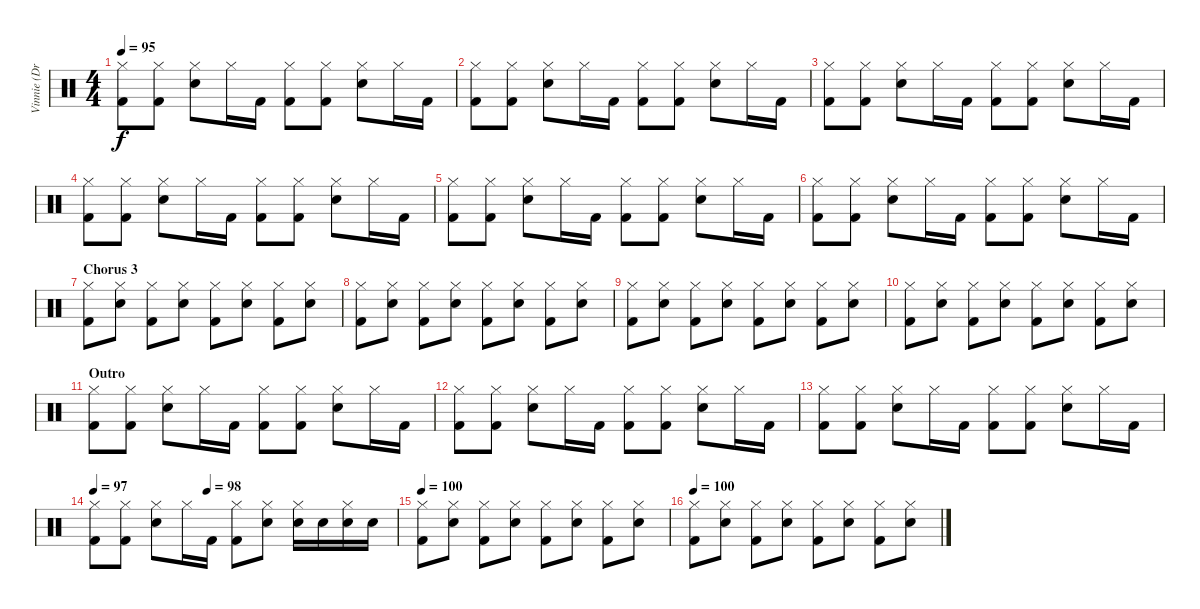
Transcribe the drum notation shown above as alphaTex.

\track ("Vinnie (Drums)" "Vinnie (Dr") {instrument percussion}
\staff {score}
\articulation defaults
\ts (4 4)
\tempo 95
\clef neutral
\ks c
("Kick (hit) 2" "Hi-Hat (closed)").8{dy f} ("Kick (hit) 2" "Hi-Hat (closed)").8 ("Snare (hit) 2" "Hi-Hat (closed)").8 "Hi-Hat (closed)".16 "Kick (hit) 2".16 ("Kick (hit) 2" "Hi-Hat (closed)").8 ("Kick (hit) 2" "Hi-Hat (closed)").8 ("Snare (hit) 2" "Hi-Hat (closed)").8 "Hi-Hat (closed)".16 "Kick (hit) 2".16 |
("Kick (hit) 2" "Hi-Hat (closed)").8 ("Kick (hit) 2" "Hi-Hat (closed)").8 ("Snare (hit) 2" "Hi-Hat (closed)").8 "Hi-Hat (closed)".16 "Kick (hit) 2".16 ("Kick (hit) 2" "Hi-Hat (closed)").8 ("Kick (hit) 2" "Hi-Hat (closed)").8 ("Snare (hit) 2" "Hi-Hat (closed)").8 "Hi-Hat (closed)".16 "Kick (hit) 2".16 |
("Kick (hit) 2" "Hi-Hat (closed)").8 ("Kick (hit) 2" "Hi-Hat (closed)").8 ("Snare (hit) 2" "Hi-Hat (closed)").8 "Hi-Hat (closed)".16 "Kick (hit) 2".16 ("Kick (hit) 2" "Hi-Hat (closed)").8 ("Kick (hit) 2" "Hi-Hat (closed)").8 ("Snare (hit) 2" "Hi-Hat (closed)").8 "Hi-Hat (closed)".16 "Kick (hit) 2".16 |
("Kick (hit) 2" "Hi-Hat (closed)").8 ("Kick (hit) 2" "Hi-Hat (closed)").8 ("Snare (hit) 2" "Hi-Hat (closed)").8 "Hi-Hat (closed)".16 "Kick (hit) 2".16 ("Kick (hit) 2" "Hi-Hat (closed)").8 ("Kick (hit) 2" "Hi-Hat (closed)").8 ("Snare (hit) 2" "Hi-Hat (closed)").8 "Hi-Hat (closed)".16 "Kick (hit) 2".16 |
("Kick (hit) 2" "Hi-Hat (closed)").8 ("Kick (hit) 2" "Hi-Hat (closed)").8 ("Snare (hit) 2" "Hi-Hat (closed)").8 "Hi-Hat (closed)".16 "Kick (hit) 2".16 ("Kick (hit) 2" "Hi-Hat (closed)").8 ("Kick (hit) 2" "Hi-Hat (closed)").8 ("Snare (hit) 2" "Hi-Hat (closed)").8 "Hi-Hat (closed)".16 "Kick (hit) 2".16 |
("Kick (hit) 2" "Hi-Hat (closed)").8 ("Kick (hit) 2" "Hi-Hat (closed)").8 ("Snare (hit) 2" "Hi-Hat (closed)").8 "Hi-Hat (closed)".16 "Kick (hit) 2".16 ("Kick (hit) 2" "Hi-Hat (closed)").8 ("Kick (hit) 2" "Hi-Hat (closed)").8 ("Snare (hit) 2" "Hi-Hat (closed)").8 "Hi-Hat (closed)".16 "Kick (hit) 2".16 |
\section ("" "Chorus 3")
("Kick (hit) 2" "Hi-Hat (closed)").8 ("Snare (hit) 2" "Hi-Hat (closed)").8 ("Kick (hit) 2" "Hi-Hat (closed)").8 ("Snare (hit) 2" "Hi-Hat (closed)").8 ("Kick (hit) 2" "Hi-Hat (closed)").8 ("Snare (hit) 2" "Hi-Hat (closed)").8 ("Kick (hit) 2" "Hi-Hat (closed)").8 ("Snare (hit) 2" "Hi-Hat (closed)").8 |
("Kick (hit) 2" "Hi-Hat (closed)").8 ("Snare (hit) 2" "Hi-Hat (closed)").8 ("Kick (hit) 2" "Hi-Hat (closed)").8 ("Snare (hit) 2" "Hi-Hat (closed)").8 ("Kick (hit) 2" "Hi-Hat (closed)").8 ("Snare (hit) 2" "Hi-Hat (closed)").8 ("Kick (hit) 2" "Hi-Hat (closed)").8 ("Snare (hit) 2" "Hi-Hat (closed)").8 |
("Kick (hit) 2" "Hi-Hat (closed)").8 ("Snare (hit) 2" "Hi-Hat (closed)").8 ("Kick (hit) 2" "Hi-Hat (closed)").8 ("Snare (hit) 2" "Hi-Hat (closed)").8 ("Kick (hit) 2" "Hi-Hat (closed)").8 ("Snare (hit) 2" "Hi-Hat (closed)").8 ("Kick (hit) 2" "Hi-Hat (closed)").8 ("Snare (hit) 2" "Hi-Hat (closed)").8 |
("Kick (hit) 2" "Hi-Hat (closed)").8 ("Snare (hit) 2" "Hi-Hat (closed)").8 ("Kick (hit) 2" "Hi-Hat (closed)").8 ("Snare (hit) 2" "Hi-Hat (closed)").8 ("Kick (hit) 2" "Hi-Hat (closed)").8 ("Snare (hit) 2" "Hi-Hat (closed)").8 ("Kick (hit) 2" "Hi-Hat (closed)").8 ("Snare (hit) 2" "Hi-Hat (closed)").8 |
\section ("" "Outro")
("Kick (hit) 2" "Hi-Hat (closed)").8 ("Kick (hit) 2" "Hi-Hat (closed)").8 ("Snare (hit) 2" "Hi-Hat (closed)").8 "Hi-Hat (closed)".16 "Kick (hit) 2".16 ("Kick (hit) 2" "Hi-Hat (closed)").8 ("Kick (hit) 2" "Hi-Hat (closed)").8 ("Snare (hit) 2" "Hi-Hat (closed)").8 "Hi-Hat (closed)".16 "Kick (hit) 2".16 |
("Kick (hit) 2" "Hi-Hat (closed)").8 ("Kick (hit) 2" "Hi-Hat (closed)").8 ("Snare (hit) 2" "Hi-Hat (closed)").8 "Hi-Hat (closed)".16 "Kick (hit) 2".16 ("Kick (hit) 2" "Hi-Hat (closed)").8 ("Kick (hit) 2" "Hi-Hat (closed)").8 ("Snare (hit) 2" "Hi-Hat (closed)").8 "Hi-Hat (closed)".16 "Kick (hit) 2".16 |
("Kick (hit) 2" "Hi-Hat (closed)").8 ("Kick (hit) 2" "Hi-Hat (closed)").8 ("Snare (hit) 2" "Hi-Hat (closed)").8 "Hi-Hat (closed)".16 "Kick (hit) 2".16 ("Kick (hit) 2" "Hi-Hat (closed)").8 ("Kick (hit) 2" "Hi-Hat (closed)").8 ("Snare (hit) 2" "Hi-Hat (closed)").8 "Hi-Hat (closed)".16 "Kick (hit) 2".16 |
\tempo 97
\tempo (98 0.375)
("Kick (hit) 2" "Hi-Hat (closed)").8 ("Kick (hit) 2" "Hi-Hat (closed)").8 ("Snare (hit) 2" "Hi-Hat (closed)").8 "Hi-Hat (closed)".16 "Kick (hit) 2".16 ("Kick (hit) 2" "Hi-Hat (closed)").8 ("Snare (hit) 2" "Hi-Hat (closed)").8 ("Snare (hit) 2" "Hi-Hat (closed)").16 "Snare (hit) 2".16 ("Snare (hit) 2" "Hi-Hat (closed)").16 "Snare (hit) 2".16 |
\tempo 100
("Kick (hit) 2" "Hi-Hat (closed)").8 ("Snare (hit) 2" "Hi-Hat (closed)").8 ("Kick (hit) 2" "Hi-Hat (closed)").8 ("Snare (hit) 2" "Hi-Hat (closed)").8 ("Kick (hit) 2" "Hi-Hat (closed)").8 ("Snare (hit) 2" "Hi-Hat (closed)").8 ("Kick (hit) 2" "Hi-Hat (closed)").8 ("Snare (hit) 2" "Hi-Hat (closed)").8 |
\tempo 100
("Kick (hit) 2" "Hi-Hat (closed)").8 ("Snare (hit) 2" "Hi-Hat (closed)").8 ("Kick (hit) 2" "Hi-Hat (closed)").8 ("Snare (hit) 2" "Hi-Hat (closed)").8 ("Kick (hit) 2" "Hi-Hat (closed)").8 ("Snare (hit) 2" "Hi-Hat (closed)").8 ("Kick (hit) 2" "Hi-Hat (closed)").8 ("Snare (hit) 2" "Hi-Hat (closed)").8
